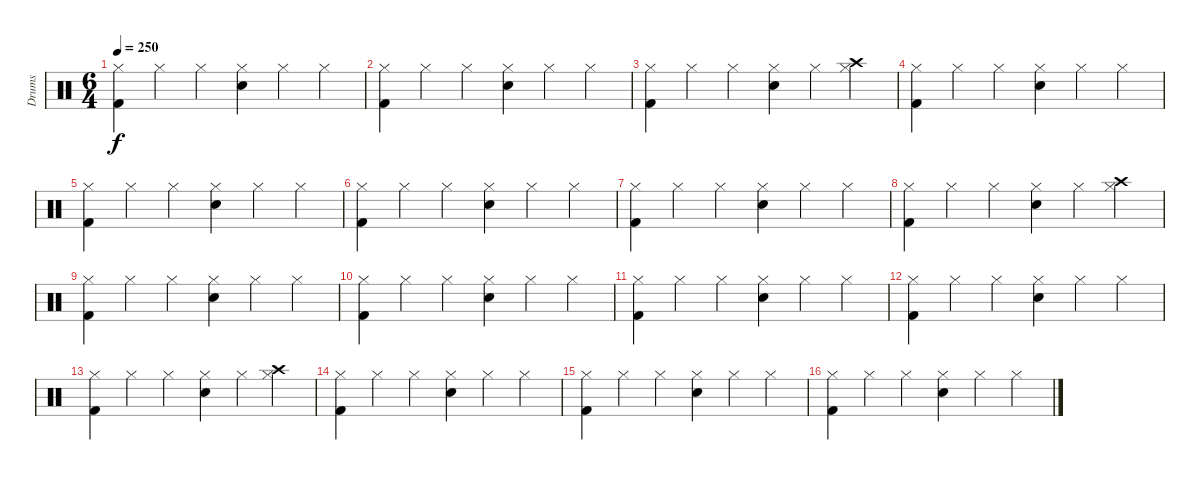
\track ("Drums" "Drums") {instrument percussion}
\staff {score}
\articulation defaults
\ts (6 4)
\tempo 250
\clef neutral
\ks c
("Hi-Hat (closed)" "Kick (hit) 2").4{dy f} "Hi-Hat (closed)".4 "Hi-Hat (closed)".4 ("Hi-Hat (closed)" "Snare (hit) 2").4 "Hi-Hat (closed)".4 "Hi-Hat (closed)".4 |
("Hi-Hat (closed)" "Kick (hit) 2").4 "Hi-Hat (closed)".4 "Hi-Hat (closed)".4 ("Hi-Hat (closed)" "Snare (hit) 2").4 "Hi-Hat (closed)".4 "Hi-Hat (closed)".4 |
("Hi-Hat (closed)" "Kick (hit) 2").4 "Hi-Hat (closed)".4 "Hi-Hat (closed)".4 ("Hi-Hat (closed)" "Snare (hit) 2").4 "Hi-Hat (closed)".4 ("Hi-Hat (closed)" "Crash high (hit)").4 |
("Hi-Hat (closed)" "Kick (hit) 2").4 "Hi-Hat (closed)".4 "Hi-Hat (closed)".4 ("Hi-Hat (closed)" "Snare (hit) 2").4 "Hi-Hat (closed)".4 "Hi-Hat (closed)".4 |
("Hi-Hat (closed)" "Kick (hit) 2").4 "Hi-Hat (closed)".4 "Hi-Hat (closed)".4 ("Hi-Hat (closed)" "Snare (hit) 2").4 "Hi-Hat (closed)".4 "Hi-Hat (closed)".4 |
("Hi-Hat (closed)" "Kick (hit) 2").4 "Hi-Hat (closed)".4 "Hi-Hat (closed)".4 ("Hi-Hat (closed)" "Snare (hit) 2").4 "Hi-Hat (closed)".4 "Hi-Hat (closed)".4 |
("Hi-Hat (closed)" "Kick (hit) 2").4 "Hi-Hat (closed)".4 "Hi-Hat (closed)".4 ("Hi-Hat (closed)" "Snare (hit) 2").4 "Hi-Hat (closed)".4 "Hi-Hat (closed)".4 |
("Hi-Hat (closed)" "Kick (hit) 2").4 "Hi-Hat (closed)".4 "Hi-Hat (closed)".4 ("Hi-Hat (closed)" "Snare (hit) 2").4 "Hi-Hat (closed)".4 ("Hi-Hat (closed)" "Crash high (hit)").4 |
("Hi-Hat (closed)" "Kick (hit) 2").4 "Hi-Hat (closed)".4 "Hi-Hat (closed)".4 ("Hi-Hat (closed)" "Snare (hit) 2").4 "Hi-Hat (closed)".4 "Hi-Hat (closed)".4 |
("Hi-Hat (closed)" "Kick (hit) 2").4 "Hi-Hat (closed)".4 "Hi-Hat (closed)".4 ("Hi-Hat (closed)" "Snare (hit) 2").4 "Hi-Hat (closed)".4 "Hi-Hat (closed)".4 |
("Hi-Hat (closed)" "Kick (hit) 2").4 "Hi-Hat (closed)".4 "Hi-Hat (closed)".4 ("Hi-Hat (closed)" "Snare (hit) 2").4 "Hi-Hat (closed)".4 "Hi-Hat (closed)".4 |
("Hi-Hat (closed)" "Kick (hit) 2").4 "Hi-Hat (closed)".4 "Hi-Hat (closed)".4 ("Hi-Hat (closed)" "Snare (hit) 2").4 "Hi-Hat (closed)".4 "Hi-Hat (closed)".4 |
("Hi-Hat (closed)" "Kick (hit) 2").4 "Hi-Hat (closed)".4 "Hi-Hat (closed)".4 ("Hi-Hat (closed)" "Snare (hit) 2").4 "Hi-Hat (closed)".4 ("Hi-Hat (closed)" "Crash high (hit)").4 |
("Hi-Hat (closed)" "Kick (hit) 2").4 "Hi-Hat (closed)".4 "Hi-Hat (closed)".4 ("Hi-Hat (closed)" "Snare (hit) 2").4 "Hi-Hat (closed)".4 "Hi-Hat (closed)".4 |
("Hi-Hat (closed)" "Kick (hit) 2").4 "Hi-Hat (closed)".4 "Hi-Hat (closed)".4 ("Hi-Hat (closed)" "Snare (hit) 2").4 "Hi-Hat (closed)".4 "Hi-Hat (closed)".4 |
("Hi-Hat (closed)" "Kick (hit) 2").4 "Hi-Hat (closed)".4 "Hi-Hat (closed)".4 ("Hi-Hat (closed)" "Snare (hit) 2").4 "Hi-Hat (closed)".4 "Hi-Hat (closed)".4
